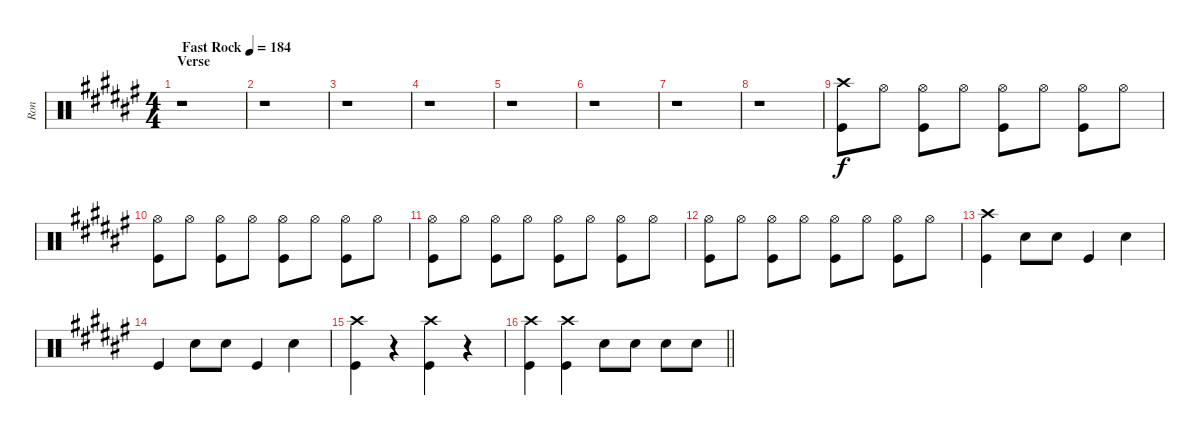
\track ("Ron" "Ron") {instrument percussion}
\staff {score}
\articulation defaults
\ts (4 4)
\section ("" "Verse")
\tempo (184 "Fast Rock")
\clef neutral
\ks f#
r.1{dy f} |
r.1 |
r.1 |
r.1 |
r.1 |
r.1 |
r.1 |
r.1 |
("Kick (hit)" "Crash high (hit)").8 "Hi-Hat (open)".8 ("Kick (hit)" "Hi-Hat (open)").8 "Hi-Hat (open)".8 ("Kick (hit)" "Hi-Hat (open)").8 "Hi-Hat (open)".8 ("Kick (hit)" "Hi-Hat (open)").8 "Hi-Hat (open)".8 |
("Kick (hit)" "Hi-Hat (open)").8 "Hi-Hat (open)".8 ("Kick (hit)" "Hi-Hat (open)").8 "Hi-Hat (open)".8 ("Kick (hit)" "Hi-Hat (open)").8 "Hi-Hat (open)".8 ("Kick (hit)" "Hi-Hat (open)").8 "Hi-Hat (open)".8 |
("Kick (hit)" "Hi-Hat (open)").8 "Hi-Hat (open)".8 ("Kick (hit)" "Hi-Hat (open)").8 "Hi-Hat (open)".8 ("Kick (hit)" "Hi-Hat (open)").8 "Hi-Hat (open)".8 ("Kick (hit)" "Hi-Hat (open)").8 "Hi-Hat (open)".8 |
("Kick (hit)" "Hi-Hat (open)").8 "Hi-Hat (open)".8 ("Kick (hit)" "Hi-Hat (open)").8 "Hi-Hat (open)".8 ("Kick (hit)" "Hi-Hat (open)").8 "Hi-Hat (open)".8 ("Kick (hit)" "Hi-Hat (open)").8 "Hi-Hat (open)".8 |
("Kick (hit)" "Crash high (hit)").4 "Electric Snare (hit)".8 "Electric Snare (hit)".8 "Kick (hit)".4 "Electric Snare (hit)".4 |
"Kick (hit)".4 "Electric Snare (hit)".8 "Electric Snare (hit)".8 "Kick (hit)".4 "Electric Snare (hit)".4 |
("Kick (hit)" "Crash high (hit)").4 r.4 ("Kick (hit)" "Crash high (hit)").4 r.4 |
\barLineRight lightlight
("Kick (hit)" "Crash high (hit)").4 ("Kick (hit)" "Crash high (hit)").4 "Electric Snare (hit)".8 "Electric Snare (hit)".8 "Electric Snare (hit)".8 "Electric Snare (hit)".8
